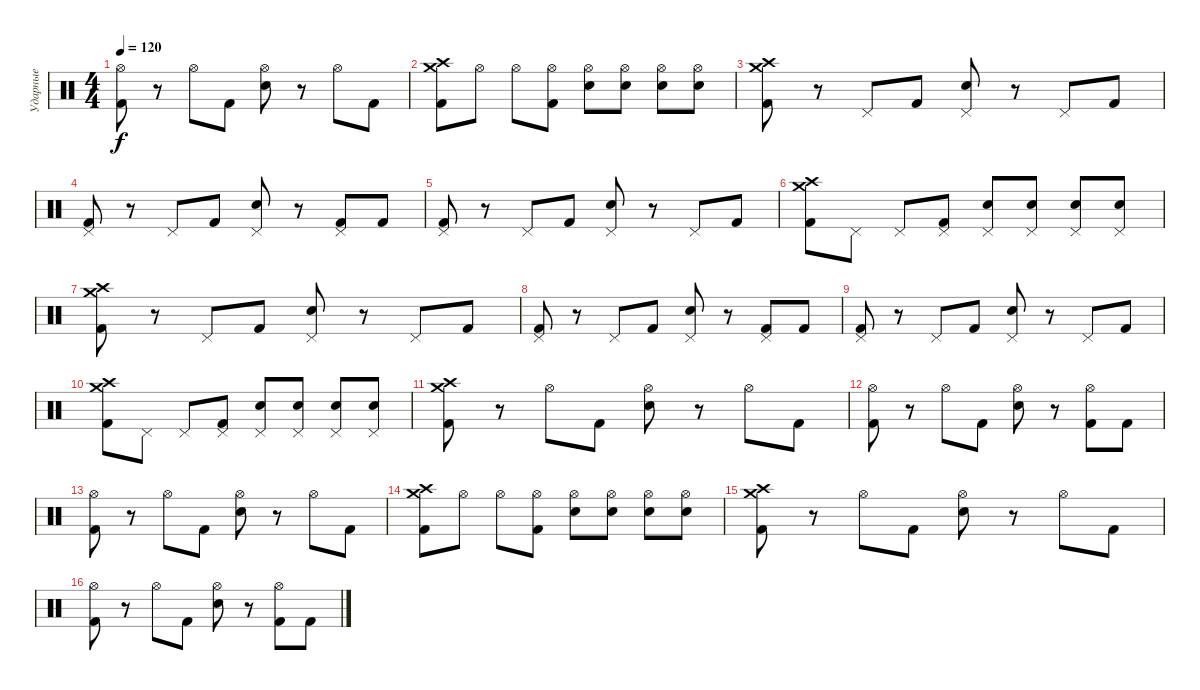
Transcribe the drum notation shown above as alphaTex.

\track ("Ударные" "Ударные") {instrument percussion}
\staff {score}
\articulation defaults
\ts (4 4)
\tempo 120
\clef neutral
\ks c
("Hi-Hat (open)" "Kick (hit) 2").8{dy f} r.8 "Hi-Hat (open)".8 "Kick (hit) 2".8 ("Hi-Hat (open)" "Electric Snare (hit)").8 r.8 "Hi-Hat (open)".8 "Kick (hit) 2".8 |
("Crash high (hit)" "Crash medium (hit)" "Kick (hit) 2").8 "Hi-Hat (open)".8 "Hi-Hat (open)".8 ("Hi-Hat (open)" "Kick (hit) 2").8 ("Hi-Hat (open)" "Electric Snare (hit)").8 ("Hi-Hat (open)" "Electric Snare (hit)").8 ("Hi-Hat (open)" "Electric Snare (hit)").8 ("Hi-Hat (open)" "Electric Snare (hit)").8 |
("Crash high (hit)" "Crash medium (hit)" "Kick (hit) 2").8 r.8 "Pedal Hi-Hat (hit)".8 "Kick (hit) 2".8 ("Pedal Hi-Hat (hit)" "Electric Snare (hit)").8 r.8 "Pedal Hi-Hat (hit)".8 "Kick (hit) 2".8 |
("Pedal Hi-Hat (hit)" "Kick (hit) 2").8 r.8 "Pedal Hi-Hat (hit)".8 "Kick (hit) 2".8 ("Pedal Hi-Hat (hit)" "Electric Snare (hit)").8 r.8 ("Pedal Hi-Hat (hit)" "Kick (hit) 2").8 "Kick (hit) 2".8 |
("Pedal Hi-Hat (hit)" "Kick (hit) 2").8 r.8 "Pedal Hi-Hat (hit)".8 "Kick (hit) 2".8 ("Pedal Hi-Hat (hit)" "Electric Snare (hit)").8 r.8 "Pedal Hi-Hat (hit)".8 "Kick (hit) 2".8 |
("Crash high (hit)" "Crash medium (hit)" "Kick (hit) 2").8 "Pedal Hi-Hat (hit)".8 "Pedal Hi-Hat (hit)".8 ("Pedal Hi-Hat (hit)" "Kick (hit) 2").8 ("Pedal Hi-Hat (hit)" "Electric Snare (hit)").8 ("Pedal Hi-Hat (hit)" "Electric Snare (hit)").8 ("Pedal Hi-Hat (hit)" "Electric Snare (hit)").8 ("Pedal Hi-Hat (hit)" "Electric Snare (hit)").8 |
("Crash high (hit)" "Crash medium (hit)" "Kick (hit) 2").8 r.8 "Pedal Hi-Hat (hit)".8 "Kick (hit) 2".8 ("Pedal Hi-Hat (hit)" "Electric Snare (hit)").8 r.8 "Pedal Hi-Hat (hit)".8 "Kick (hit) 2".8 |
("Pedal Hi-Hat (hit)" "Kick (hit) 2").8 r.8 "Pedal Hi-Hat (hit)".8 "Kick (hit) 2".8 ("Pedal Hi-Hat (hit)" "Electric Snare (hit)").8 r.8 ("Pedal Hi-Hat (hit)" "Kick (hit) 2").8 "Kick (hit) 2".8 |
("Pedal Hi-Hat (hit)" "Kick (hit) 2").8 r.8 "Pedal Hi-Hat (hit)".8 "Kick (hit) 2".8 ("Pedal Hi-Hat (hit)" "Electric Snare (hit)").8 r.8 "Pedal Hi-Hat (hit)".8 "Kick (hit) 2".8 |
("Crash high (hit)" "Crash medium (hit)" "Kick (hit) 2").8 "Pedal Hi-Hat (hit)".8 "Pedal Hi-Hat (hit)".8 ("Pedal Hi-Hat (hit)" "Kick (hit) 2").8 ("Pedal Hi-Hat (hit)" "Electric Snare (hit)").8 ("Pedal Hi-Hat (hit)" "Electric Snare (hit)").8 ("Pedal Hi-Hat (hit)" "Electric Snare (hit)").8 ("Pedal Hi-Hat (hit)" "Electric Snare (hit)").8 |
("Crash high (hit)" "Crash medium (hit)" "Kick (hit) 2").8 r.8 "Hi-Hat (open)".8 "Kick (hit) 2".8 ("Hi-Hat (open)" "Electric Snare (hit)").8 r.8 "Hi-Hat (open)".8 "Kick (hit) 2".8 |
("Hi-Hat (open)" "Kick (hit) 2").8 r.8 "Hi-Hat (open)".8 "Kick (hit) 2".8 ("Hi-Hat (open)" "Electric Snare (hit)").8 r.8 ("Hi-Hat (open)" "Kick (hit) 2").8 "Kick (hit) 2".8 |
("Hi-Hat (open)" "Kick (hit) 2").8 r.8 "Hi-Hat (open)".8 "Kick (hit) 2".8 ("Hi-Hat (open)" "Electric Snare (hit)").8 r.8 "Hi-Hat (open)".8 "Kick (hit) 2".8 |
("Crash high (hit)" "Crash medium (hit)" "Kick (hit) 2").8 "Hi-Hat (open)".8 "Hi-Hat (open)".8 ("Hi-Hat (open)" "Kick (hit) 2").8 ("Hi-Hat (open)" "Electric Snare (hit)").8 ("Hi-Hat (open)" "Electric Snare (hit)").8 ("Hi-Hat (open)" "Electric Snare (hit)").8 ("Hi-Hat (open)" "Electric Snare (hit)").8 |
("Crash high (hit)" "Crash medium (hit)" "Kick (hit) 2").8 r.8 "Hi-Hat (open)".8 "Kick (hit) 2".8 ("Hi-Hat (open)" "Electric Snare (hit)").8 r.8 "Hi-Hat (open)".8 "Kick (hit) 2".8 |
("Hi-Hat (open)" "Kick (hit) 2").8 r.8 "Hi-Hat (open)".8 "Kick (hit) 2".8 ("Hi-Hat (open)" "Electric Snare (hit)").8 r.8 ("Hi-Hat (open)" "Kick (hit) 2").8 "Kick (hit) 2".8
